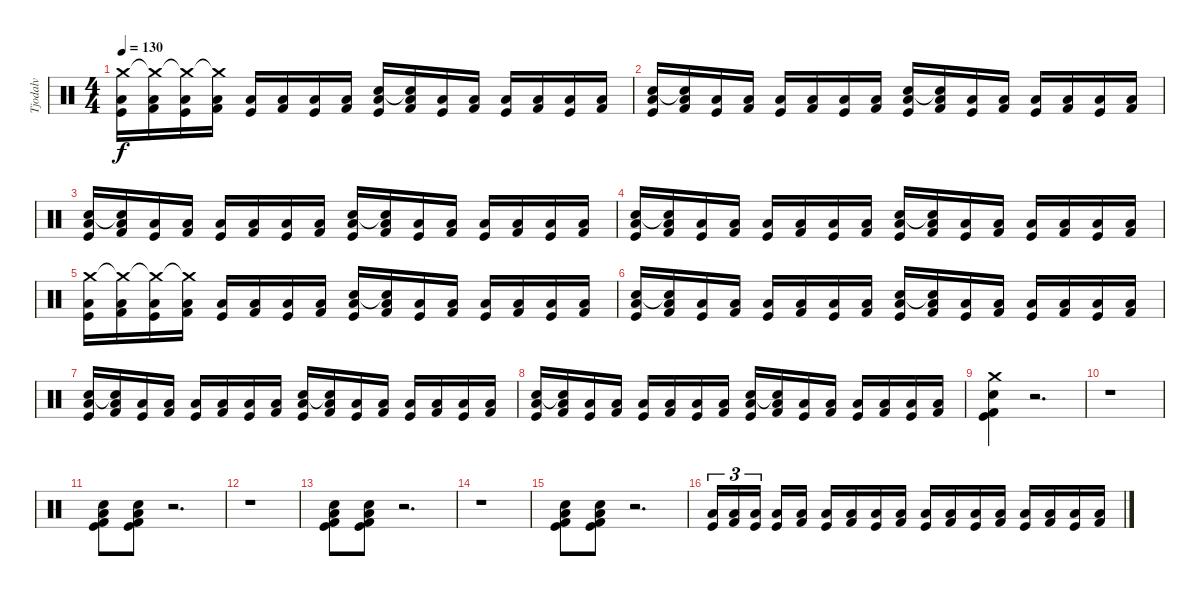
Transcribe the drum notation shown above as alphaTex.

\track ("Tjodalv" "Tjodalv") {instrument percussion}
\staff {score}
\articulation defaults
\ts (4 4)
\tempo 130
\clef neutral
\ks c
("Crash medium (hit)" "Low Floor Tom (hit)" "Kick (hit)").16{dy f} ("Crash medium (hit)"{t} "Low Floor Tom (hit)" "Kick (hit) 2").16 ("Crash medium (hit)"{t} "Low Floor Tom (hit)" "Kick (hit)").16 ("Crash medium (hit)"{t} "Low Floor Tom (hit)" "Kick (hit) 2").16 ("Low Floor Tom (hit)" "Kick (hit)").16 ("Low Floor Tom (hit)" "Kick (hit) 2").16 ("Low Floor Tom (hit)" "Kick (hit)").16 ("Low Floor Tom (hit)" "Kick (hit) 2").16 ("Snare (hit) 2" "Low Floor Tom (hit)" "Kick (hit)").16 ("Snare (hit) 2"{t} "Low Floor Tom (hit)" "Kick (hit) 2").16 ("Low Floor Tom (hit)" "Kick (hit)").16 ("Low Floor Tom (hit)" "Kick (hit) 2").16 ("Low Floor Tom (hit)" "Kick (hit)").16 ("Low Floor Tom (hit)" "Kick (hit) 2").16 ("Low Floor Tom (hit)" "Kick (hit)").16 ("Low Floor Tom (hit)" "Kick (hit) 2").16 |
("Snare (hit) 2" "Low Floor Tom (hit)" "Kick (hit)").16 ("Snare (hit) 2"{t} "Low Floor Tom (hit)" "Kick (hit) 2").16 ("Low Floor Tom (hit)" "Kick (hit)").16 ("Low Floor Tom (hit)" "Kick (hit) 2").16 ("Low Floor Tom (hit)" "Kick (hit)").16 ("Low Floor Tom (hit)" "Kick (hit) 2").16 ("Low Floor Tom (hit)" "Kick (hit)").16 ("Low Floor Tom (hit)" "Kick (hit) 2").16 ("Snare (hit) 2" "Low Floor Tom (hit)" "Kick (hit)").16 ("Snare (hit) 2"{t} "Low Floor Tom (hit)" "Kick (hit) 2").16 ("Low Floor Tom (hit)" "Kick (hit)").16 ("Low Floor Tom (hit)" "Kick (hit) 2").16 ("Low Floor Tom (hit)" "Kick (hit)").16 ("Low Floor Tom (hit)" "Kick (hit) 2").16 ("Low Floor Tom (hit)" "Kick (hit)").16 ("Low Floor Tom (hit)" "Kick (hit) 2").16 |
("Snare (hit) 2" "Low Floor Tom (hit)" "Kick (hit)").16 ("Snare (hit) 2"{t} "Low Floor Tom (hit)" "Kick (hit) 2").16 ("Low Floor Tom (hit)" "Kick (hit)").16 ("Low Floor Tom (hit)" "Kick (hit) 2").16 ("Low Floor Tom (hit)" "Kick (hit)").16 ("Low Floor Tom (hit)" "Kick (hit) 2").16 ("Low Floor Tom (hit)" "Kick (hit)").16 ("Low Floor Tom (hit)" "Kick (hit) 2").16 ("Snare (hit) 2" "Low Floor Tom (hit)" "Kick (hit)").16 ("Snare (hit) 2"{t} "Low Floor Tom (hit)" "Kick (hit) 2").16 ("Low Floor Tom (hit)" "Kick (hit)").16 ("Low Floor Tom (hit)" "Kick (hit) 2").16 ("Low Floor Tom (hit)" "Kick (hit)").16 ("Low Floor Tom (hit)" "Kick (hit) 2").16 ("Low Floor Tom (hit)" "Kick (hit)").16 ("Low Floor Tom (hit)" "Kick (hit) 2").16 |
("Snare (hit) 2" "Low Floor Tom (hit)" "Kick (hit)").16 ("Snare (hit) 2"{t} "Low Floor Tom (hit)" "Kick (hit) 2").16 ("Low Floor Tom (hit)" "Kick (hit)").16 ("Low Floor Tom (hit)" "Kick (hit) 2").16 ("Low Floor Tom (hit)" "Kick (hit)").16 ("Low Floor Tom (hit)" "Kick (hit) 2").16 ("Low Floor Tom (hit)" "Kick (hit)").16 ("Low Floor Tom (hit)" "Kick (hit) 2").16 ("Snare (hit) 2" "Low Floor Tom (hit)" "Kick (hit)").16 ("Snare (hit) 2"{t} "Low Floor Tom (hit)" "Kick (hit) 2").16 ("Low Floor Tom (hit)" "Kick (hit)").16 ("Low Floor Tom (hit)" "Kick (hit) 2").16 ("Low Floor Tom (hit)" "Kick (hit)").16 ("Low Floor Tom (hit)" "Kick (hit) 2").16 ("Low Floor Tom (hit)" "Kick (hit)").16 ("Low Floor Tom (hit)" "Kick (hit) 2").16 |
("Crash medium (hit)" "Low Floor Tom (hit)" "Kick (hit)").16 ("Crash medium (hit)"{t} "Low Floor Tom (hit)" "Kick (hit) 2").16 ("Crash medium (hit)"{t} "Low Floor Tom (hit)" "Kick (hit)").16 ("Crash medium (hit)"{t} "Low Floor Tom (hit)" "Kick (hit) 2").16 ("Low Floor Tom (hit)" "Kick (hit)").16 ("Low Floor Tom (hit)" "Kick (hit) 2").16 ("Low Floor Tom (hit)" "Kick (hit)").16 ("Low Floor Tom (hit)" "Kick (hit) 2").16 ("Snare (hit) 2" "Low Floor Tom (hit)" "Kick (hit)").16 ("Snare (hit) 2"{t} "Low Floor Tom (hit)" "Kick (hit) 2").16 ("Low Floor Tom (hit)" "Kick (hit)").16 ("Low Floor Tom (hit)" "Kick (hit) 2").16 ("Low Floor Tom (hit)" "Kick (hit)").16 ("Low Floor Tom (hit)" "Kick (hit) 2").16 ("Low Floor Tom (hit)" "Kick (hit)").16 ("Low Floor Tom (hit)" "Kick (hit) 2").16 |
("Snare (hit) 2" "Low Floor Tom (hit)" "Kick (hit)").16 ("Snare (hit) 2"{t} "Low Floor Tom (hit)" "Kick (hit) 2").16 ("Low Floor Tom (hit)" "Kick (hit)").16 ("Low Floor Tom (hit)" "Kick (hit) 2").16 ("Low Floor Tom (hit)" "Kick (hit)").16 ("Low Floor Tom (hit)" "Kick (hit) 2").16 ("Low Floor Tom (hit)" "Kick (hit)").16 ("Low Floor Tom (hit)" "Kick (hit) 2").16 ("Snare (hit) 2" "Low Floor Tom (hit)" "Kick (hit)").16 ("Snare (hit) 2"{t} "Low Floor Tom (hit)" "Kick (hit) 2").16 ("Low Floor Tom (hit)" "Kick (hit)").16 ("Low Floor Tom (hit)" "Kick (hit) 2").16 ("Low Floor Tom (hit)" "Kick (hit)").16 ("Low Floor Tom (hit)" "Kick (hit) 2").16 ("Low Floor Tom (hit)" "Kick (hit)").16 ("Low Floor Tom (hit)" "Kick (hit) 2").16 |
("Snare (hit) 2" "Low Floor Tom (hit)" "Kick (hit)").16 ("Snare (hit) 2"{t} "Low Floor Tom (hit)" "Kick (hit) 2").16 ("Low Floor Tom (hit)" "Kick (hit)").16 ("Low Floor Tom (hit)" "Kick (hit) 2").16 ("Low Floor Tom (hit)" "Kick (hit)").16 ("Low Floor Tom (hit)" "Kick (hit) 2").16 ("Low Floor Tom (hit)" "Kick (hit)").16 ("Low Floor Tom (hit)" "Kick (hit) 2").16 ("Snare (hit) 2" "Low Floor Tom (hit)" "Kick (hit)").16 ("Snare (hit) 2"{t} "Low Floor Tom (hit)" "Kick (hit) 2").16 ("Low Floor Tom (hit)" "Kick (hit)").16 ("Low Floor Tom (hit)" "Kick (hit) 2").16 ("Low Floor Tom (hit)" "Kick (hit)").16 ("Low Floor Tom (hit)" "Kick (hit) 2").16 ("Low Floor Tom (hit)" "Kick (hit)").16 ("Low Floor Tom (hit)" "Kick (hit) 2").16 |
("Snare (hit) 2" "Low Floor Tom (hit)" "Kick (hit)").16 ("Snare (hit) 2"{t} "Low Floor Tom (hit)" "Kick (hit) 2").16 ("Low Floor Tom (hit)" "Kick (hit)").16 ("Low Floor Tom (hit)" "Kick (hit) 2").16 ("Low Floor Tom (hit)" "Kick (hit)").16 ("Low Floor Tom (hit)" "Kick (hit) 2").16 ("Low Floor Tom (hit)" "Kick (hit)").16 ("Low Floor Tom (hit)" "Kick (hit) 2").16 ("Snare (hit) 2" "Low Floor Tom (hit)" "Kick (hit)").16 ("Snare (hit) 2"{t} "Low Floor Tom (hit)" "Kick (hit) 2").16 ("Low Floor Tom (hit)" "Kick (hit)").16 ("Low Floor Tom (hit)" "Kick (hit) 2").16 ("Low Floor Tom (hit)" "Kick (hit)").16 ("Low Floor Tom (hit)" "Kick (hit) 2").16 ("Low Floor Tom (hit)" "Kick (hit)").16 ("Low Floor Tom (hit)" "Kick (hit) 2").16 |
("Crash medium (hit)" "Snare (hit) 2" "Kick (hit)" "Kick (hit) 2").4 r.2{d} |
r.1 |
("Low Floor Tom (hit)" "Snare (hit) 2" "Kick (hit)" "Kick (hit) 2").8 ("Low Floor Tom (hit)" "Snare (hit) 2" "Kick (hit)" "Kick (hit) 2").8 r.2{d} |
r.1 |
("Low Floor Tom (hit)" "Snare (hit) 2" "Kick (hit)" "Kick (hit) 2").8 ("Low Floor Tom (hit)" "Snare (hit) 2" "Kick (hit)" "Kick (hit) 2").8 r.2{d} |
r.1 |
("Low Floor Tom (hit)" "Snare (hit) 2" "Kick (hit)" "Kick (hit) 2").8 ("Low Floor Tom (hit)" "Snare (hit) 2" "Kick (hit)" "Kick (hit) 2").8 r.2{d} |
("Low Floor Tom (hit)" "Kick (hit)").16{tu (3 2)} ("Low Floor Tom (hit)" "Kick (hit) 2").16{tu (3 2)} ("Low Floor Tom (hit)" "Kick (hit)").16{tu (3 2)} ("Low Floor Tom (hit)" "Kick (hit)").16 ("Low Floor Tom (hit)" "Kick (hit) 2").16 ("Low Floor Tom (hit)" "Kick (hit)").16 ("Low Floor Tom (hit)" "Kick (hit) 2").16 ("Low Floor Tom (hit)" "Kick (hit)").16 ("Low Floor Tom (hit)" "Kick (hit) 2").16 ("Low Floor Tom (hit)" "Kick (hit)").16 ("Low Floor Tom (hit)" "Kick (hit) 2").16 ("Low Floor Tom (hit)" "Kick (hit)").16 ("Low Floor Tom (hit)" "Kick (hit) 2").16 ("Low Floor Tom (hit)" "Kick (hit)").16 ("Low Floor Tom (hit)" "Kick (hit) 2").16 ("Low Floor Tom (hit)" "Kick (hit)").16 ("Low Floor Tom (hit)" "Kick (hit) 2").16
